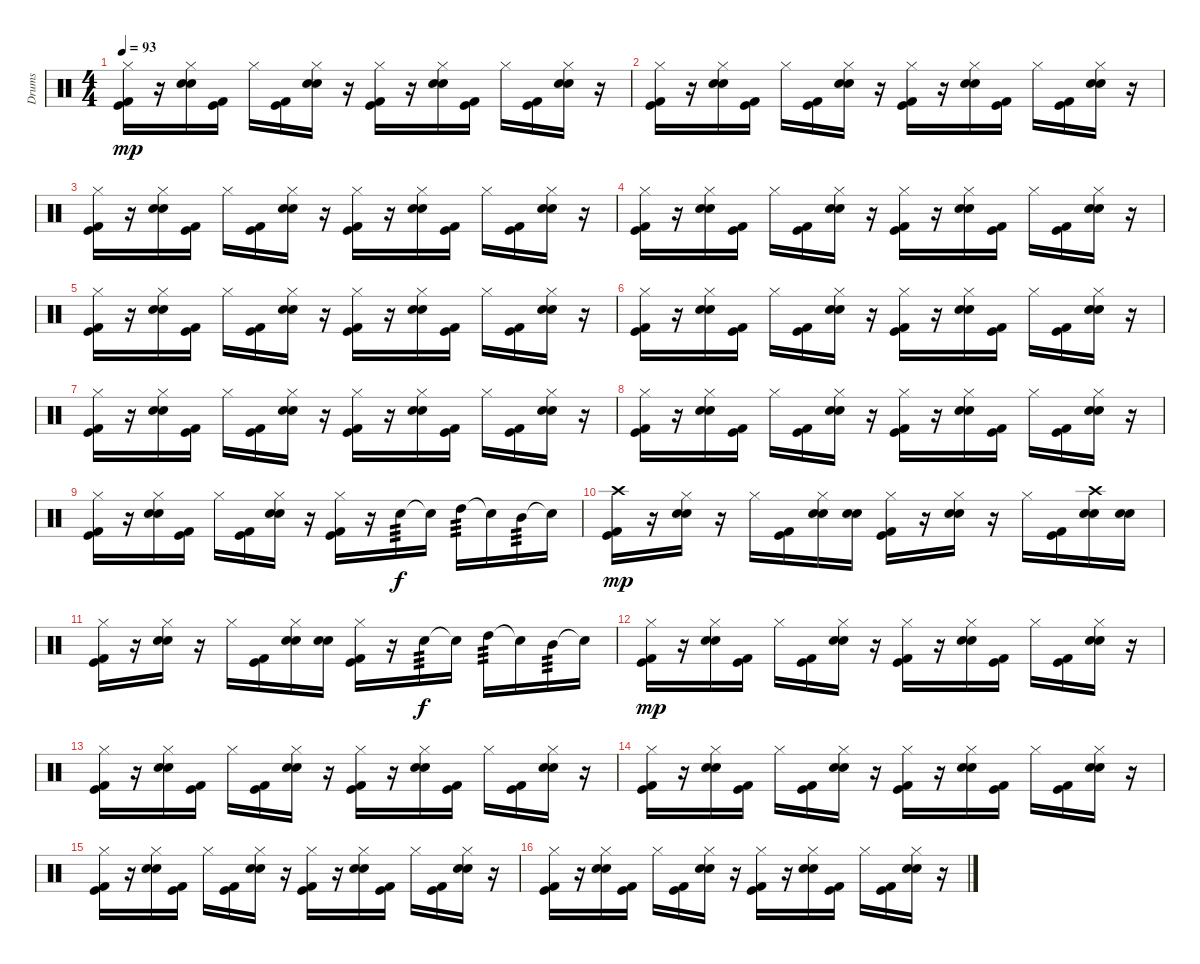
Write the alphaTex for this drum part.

\track ("Drums" "Drums") {instrument percussion}
\staff {score}
\articulation defaults
\ts (4 4)
\tempo 93
\clef neutral
\ks c
("Hi-Hat (closed)" "Kick (hit)" "Kick (hit) 2").16{dy mp} r.16 ("Hi-Hat (closed)" "Electric Snare (hit)" "Snare (hit) 2").16 ("Kick (hit)" "Kick (hit) 2").16 "Hi-Hat (closed)".16 ("Kick (hit)" "Kick (hit) 2").16 ("Hi-Hat (closed)" "Electric Snare (hit)" "Snare (hit) 2").16 r.16 ("Hi-Hat (closed)" "Kick (hit)" "Kick (hit) 2").16 r.16 ("Hi-Hat (closed)" "Electric Snare (hit)" "Snare (hit) 2").16 ("Kick (hit)" "Kick (hit) 2").16 "Hi-Hat (closed)".16 ("Kick (hit)" "Kick (hit) 2").16 ("Hi-Hat (closed)" "Electric Snare (hit)" "Snare (hit) 2").16 r.16 |
("Hi-Hat (closed)" "Kick (hit)" "Kick (hit) 2").16 r.16 ("Hi-Hat (closed)" "Electric Snare (hit)" "Snare (hit) 2").16 ("Kick (hit)" "Kick (hit) 2").16 "Hi-Hat (closed)".16 ("Kick (hit)" "Kick (hit) 2").16 ("Hi-Hat (closed)" "Electric Snare (hit)" "Snare (hit) 2").16 r.16 ("Hi-Hat (closed)" "Kick (hit)" "Kick (hit) 2").16 r.16 ("Hi-Hat (closed)" "Electric Snare (hit)" "Snare (hit) 2").16 ("Kick (hit)" "Kick (hit) 2").16 "Hi-Hat (closed)".16 ("Kick (hit)" "Kick (hit) 2").16 ("Hi-Hat (closed)" "Electric Snare (hit)" "Snare (hit) 2").16 r.16 |
("Hi-Hat (closed)" "Kick (hit)" "Kick (hit) 2").16 r.16 ("Hi-Hat (closed)" "Electric Snare (hit)" "Snare (hit) 2").16 ("Kick (hit)" "Kick (hit) 2").16 "Hi-Hat (closed)".16 ("Kick (hit)" "Kick (hit) 2").16 ("Hi-Hat (closed)" "Electric Snare (hit)" "Snare (hit) 2").16 r.16 ("Hi-Hat (closed)" "Kick (hit)" "Kick (hit) 2").16 r.16 ("Hi-Hat (closed)" "Electric Snare (hit)" "Snare (hit) 2").16 ("Kick (hit)" "Kick (hit) 2").16 "Hi-Hat (closed)".16 ("Kick (hit)" "Kick (hit) 2").16 ("Hi-Hat (closed)" "Electric Snare (hit)" "Snare (hit) 2").16 r.16 |
("Hi-Hat (closed)" "Kick (hit)" "Kick (hit) 2").16 r.16 ("Hi-Hat (closed)" "Electric Snare (hit)" "Snare (hit) 2").16 ("Kick (hit)" "Kick (hit) 2").16 "Hi-Hat (closed)".16 ("Kick (hit)" "Kick (hit) 2").16 ("Hi-Hat (closed)" "Electric Snare (hit)" "Snare (hit) 2").16 r.16 ("Hi-Hat (closed)" "Kick (hit)" "Kick (hit) 2").16 r.16 ("Hi-Hat (closed)" "Electric Snare (hit)" "Snare (hit) 2").16 ("Kick (hit)" "Kick (hit) 2").16 "Hi-Hat (closed)".16 ("Kick (hit)" "Kick (hit) 2").16 ("Hi-Hat (closed)" "Electric Snare (hit)" "Snare (hit) 2").16 r.16 |
("Hi-Hat (closed)" "Kick (hit)" "Kick (hit) 2").16 r.16 ("Hi-Hat (closed)" "Electric Snare (hit)" "Snare (hit) 2").16 ("Kick (hit)" "Kick (hit) 2").16 "Hi-Hat (closed)".16 ("Kick (hit)" "Kick (hit) 2").16 ("Hi-Hat (closed)" "Electric Snare (hit)" "Snare (hit) 2").16 r.16 ("Hi-Hat (closed)" "Kick (hit)" "Kick (hit) 2").16 r.16 ("Hi-Hat (closed)" "Electric Snare (hit)" "Snare (hit) 2").16 ("Kick (hit)" "Kick (hit) 2").16 "Hi-Hat (closed)".16 ("Kick (hit)" "Kick (hit) 2").16 ("Hi-Hat (closed)" "Electric Snare (hit)" "Snare (hit) 2").16 r.16 |
("Hi-Hat (closed)" "Kick (hit)" "Kick (hit) 2").16 r.16 ("Hi-Hat (closed)" "Electric Snare (hit)" "Snare (hit) 2").16 ("Kick (hit)" "Kick (hit) 2").16 "Hi-Hat (closed)".16 ("Kick (hit)" "Kick (hit) 2").16 ("Hi-Hat (closed)" "Electric Snare (hit)" "Snare (hit) 2").16 r.16 ("Hi-Hat (closed)" "Kick (hit)" "Kick (hit) 2").16 r.16 ("Hi-Hat (closed)" "Electric Snare (hit)" "Snare (hit) 2").16 ("Kick (hit)" "Kick (hit) 2").16 "Hi-Hat (closed)".16 ("Kick (hit)" "Kick (hit) 2").16 ("Hi-Hat (closed)" "Electric Snare (hit)" "Snare (hit) 2").16 r.16 |
("Hi-Hat (closed)" "Kick (hit)" "Kick (hit) 2").16 r.16 ("Hi-Hat (closed)" "Electric Snare (hit)" "Snare (hit) 2").16 ("Kick (hit)" "Kick (hit) 2").16 "Hi-Hat (closed)".16 ("Kick (hit)" "Kick (hit) 2").16 ("Hi-Hat (closed)" "Electric Snare (hit)" "Snare (hit) 2").16 r.16 ("Hi-Hat (closed)" "Kick (hit)" "Kick (hit) 2").16 r.16 ("Hi-Hat (closed)" "Electric Snare (hit)" "Snare (hit) 2").16 ("Kick (hit)" "Kick (hit) 2").16 "Hi-Hat (closed)".16 ("Kick (hit)" "Kick (hit) 2").16 ("Hi-Hat (closed)" "Electric Snare (hit)" "Snare (hit) 2").16 r.16 |
("Hi-Hat (closed)" "Kick (hit)" "Kick (hit) 2").16 r.16 ("Hi-Hat (closed)" "Electric Snare (hit)" "Snare (hit) 2").16 ("Kick (hit)" "Kick (hit) 2").16 "Hi-Hat (closed)".16 ("Kick (hit)" "Kick (hit) 2").16 ("Hi-Hat (closed)" "Electric Snare (hit)" "Snare (hit) 2").16 r.16 ("Hi-Hat (closed)" "Kick (hit)" "Kick (hit) 2").16 r.16 ("Hi-Hat (closed)" "Electric Snare (hit)" "Snare (hit) 2").16 ("Kick (hit)" "Kick (hit) 2").16 "Hi-Hat (closed)".16 ("Kick (hit)" "Kick (hit) 2").16 ("Hi-Hat (closed)" "Electric Snare (hit)" "Snare (hit) 2").16 r.16 |
("Hi-Hat (closed)" "Kick (hit)" "Kick (hit) 2").16 r.16 ("Hi-Hat (closed)" "Electric Snare (hit)" "Snare (hit) 2").16 ("Kick (hit)" "Kick (hit) 2").16 "Hi-Hat (closed)".16 ("Kick (hit)" "Kick (hit) 2").16 ("Hi-Hat (closed)" "Electric Snare (hit)" "Snare (hit) 2").16 r.16 ("Hi-Hat (closed)" "Kick (hit)" "Kick (hit) 2").16 r.16 "Electric Snare (hit)".16{tp 3 dy f} "Snare (hit)"{t}.16 "High Tom (hit)".16{tp 3} "Snare (hit)"{t}.16 "Mid Tom (hit)".16{tp 3} "Snare (hit)"{t}.16 |
("Crash high (hit)" "Kick (hit)" "Kick (hit) 2").16{dy mp} r.16 ("Hi-Hat (closed)" "Electric Snare (hit)" "Snare (hit) 2").16 r.16 "Hi-Hat (closed)".16 ("Kick (hit)" "Kick (hit) 2").16 ("Hi-Hat (closed)" "Electric Snare (hit)" "Snare (hit) 2").16 ("Electric Snare (hit)" "Snare (hit) 2").16 ("Hi-Hat (closed)" "Kick (hit)" "Kick (hit) 2").16 r.16 ("Hi-Hat (closed)" "Electric Snare (hit)" "Snare (hit) 2").16 r.16 "Hi-Hat (closed)".16 ("Kick (hit)" "Kick (hit) 2").16 ("Crash high (hit)" "Electric Snare (hit)" "Snare (hit) 2").16 ("Electric Snare (hit)" "Snare (hit) 2").16 |
("Hi-Hat (closed)" "Kick (hit)" "Kick (hit) 2").16 r.16 ("Hi-Hat (closed)" "Electric Snare (hit)" "Snare (hit) 2").16 r.16 "Hi-Hat (closed)".16 ("Kick (hit)" "Kick (hit) 2").16 ("Hi-Hat (closed)" "Electric Snare (hit)" "Snare (hit) 2").16 ("Electric Snare (hit)" "Snare (hit) 2").16 ("Hi-Hat (closed)" "Kick (hit)" "Kick (hit) 2").16 r.16 "Electric Snare (hit)".16{tp 3 dy f} "Snare (hit)"{t}.16 "High Tom (hit)".16{tp 3} "Snare (hit)"{t}.16 "Mid Tom (hit)".16{tp 3} "Snare (hit)"{t}.16 |
("Hi-Hat (closed)" "Kick (hit)" "Kick (hit) 2").16{dy mp} r.16 ("Hi-Hat (closed)" "Electric Snare (hit)" "Snare (hit) 2").16 ("Kick (hit)" "Kick (hit) 2").16 "Hi-Hat (closed)".16 ("Kick (hit)" "Kick (hit) 2").16 ("Hi-Hat (closed)" "Electric Snare (hit)" "Snare (hit) 2").16 r.16 ("Hi-Hat (closed)" "Kick (hit)" "Kick (hit) 2").16 r.16 ("Hi-Hat (closed)" "Electric Snare (hit)" "Snare (hit) 2").16 ("Kick (hit)" "Kick (hit) 2").16 "Hi-Hat (closed)".16 ("Kick (hit)" "Kick (hit) 2").16 ("Hi-Hat (closed)" "Electric Snare (hit)" "Snare (hit) 2").16 r.16 |
("Hi-Hat (closed)" "Kick (hit)" "Kick (hit) 2").16 r.16 ("Hi-Hat (closed)" "Electric Snare (hit)" "Snare (hit) 2").16 ("Kick (hit)" "Kick (hit) 2").16 "Hi-Hat (closed)".16 ("Kick (hit)" "Kick (hit) 2").16 ("Hi-Hat (closed)" "Electric Snare (hit)" "Snare (hit) 2").16 r.16 ("Hi-Hat (closed)" "Kick (hit)" "Kick (hit) 2").16 r.16 ("Hi-Hat (closed)" "Electric Snare (hit)" "Snare (hit) 2").16 ("Kick (hit)" "Kick (hit) 2").16 "Hi-Hat (closed)".16 ("Kick (hit)" "Kick (hit) 2").16 ("Hi-Hat (closed)" "Electric Snare (hit)" "Snare (hit) 2").16 r.16 |
("Hi-Hat (closed)" "Kick (hit)" "Kick (hit) 2").16 r.16 ("Hi-Hat (closed)" "Electric Snare (hit)" "Snare (hit) 2").16 ("Kick (hit)" "Kick (hit) 2").16 "Hi-Hat (closed)".16 ("Kick (hit)" "Kick (hit) 2").16 ("Hi-Hat (closed)" "Electric Snare (hit)" "Snare (hit) 2").16 r.16 ("Hi-Hat (closed)" "Kick (hit)" "Kick (hit) 2").16 r.16 ("Hi-Hat (closed)" "Electric Snare (hit)" "Snare (hit) 2").16 ("Kick (hit)" "Kick (hit) 2").16 "Hi-Hat (closed)".16 ("Kick (hit)" "Kick (hit) 2").16 ("Hi-Hat (closed)" "Electric Snare (hit)" "Snare (hit) 2").16 r.16 |
("Hi-Hat (closed)" "Kick (hit)" "Kick (hit) 2").16 r.16 ("Hi-Hat (closed)" "Electric Snare (hit)" "Snare (hit) 2").16 ("Kick (hit)" "Kick (hit) 2").16 "Hi-Hat (closed)".16 ("Kick (hit)" "Kick (hit) 2").16 ("Hi-Hat (closed)" "Electric Snare (hit)" "Snare (hit) 2").16 r.16 ("Hi-Hat (closed)" "Kick (hit)" "Kick (hit) 2").16 r.16 ("Hi-Hat (closed)" "Electric Snare (hit)" "Snare (hit) 2").16 ("Kick (hit)" "Kick (hit) 2").16 "Hi-Hat (closed)".16 ("Kick (hit)" "Kick (hit) 2").16 ("Hi-Hat (closed)" "Electric Snare (hit)" "Snare (hit) 2").16 r.16 |
("Hi-Hat (closed)" "Kick (hit)" "Kick (hit) 2").16 r.16 ("Hi-Hat (closed)" "Electric Snare (hit)" "Snare (hit) 2").16 ("Kick (hit)" "Kick (hit) 2").16 "Hi-Hat (closed)".16 ("Kick (hit)" "Kick (hit) 2").16 ("Hi-Hat (closed)" "Electric Snare (hit)" "Snare (hit) 2").16 r.16 ("Hi-Hat (closed)" "Kick (hit)" "Kick (hit) 2").16 r.16 ("Hi-Hat (closed)" "Electric Snare (hit)" "Snare (hit) 2").16 ("Kick (hit)" "Kick (hit) 2").16 "Hi-Hat (closed)".16 ("Kick (hit)" "Kick (hit) 2").16 ("Hi-Hat (closed)" "Electric Snare (hit)" "Snare (hit) 2").16 r.16
